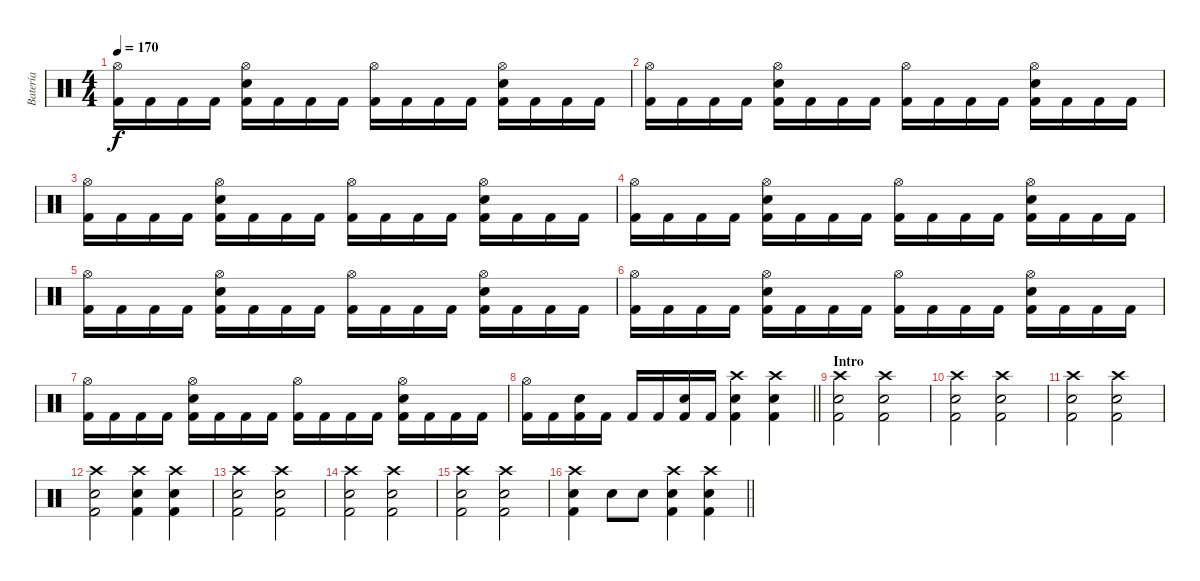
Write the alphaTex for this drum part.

\track ("Batería" "Batería") {instrument percussion}
\staff {score}
\articulation defaults
\ts (4 4)
\tempo 170
\clef neutral
\ks c
("Hi-Hat (open)" "Kick (hit) 2").16{dy f} "Kick (hit) 2".16 "Kick (hit) 2".16 "Kick (hit) 2".16 ("Hi-Hat (open)" "Snare (hit) 2" "Kick (hit) 2").16 "Kick (hit) 2".16 "Kick (hit) 2".16 "Kick (hit) 2".16 ("Hi-Hat (open)" "Kick (hit) 2").16 "Kick (hit) 2".16 "Kick (hit) 2".16 "Kick (hit) 2".16 ("Hi-Hat (open)" "Snare (hit) 2" "Kick (hit) 2").16 "Kick (hit) 2".16 "Kick (hit) 2".16 "Kick (hit) 2".16 |
("Hi-Hat (open)" "Kick (hit) 2").16 "Kick (hit) 2".16 "Kick (hit) 2".16 "Kick (hit) 2".16 ("Hi-Hat (open)" "Snare (hit) 2" "Kick (hit) 2").16 "Kick (hit) 2".16 "Kick (hit) 2".16 "Kick (hit) 2".16 ("Hi-Hat (open)" "Kick (hit) 2").16 "Kick (hit) 2".16 "Kick (hit) 2".16 "Kick (hit) 2".16 ("Hi-Hat (open)" "Snare (hit) 2" "Kick (hit) 2").16 "Kick (hit) 2".16 "Kick (hit) 2".16 "Kick (hit) 2".16 |
("Hi-Hat (open)" "Kick (hit) 2").16 "Kick (hit) 2".16 "Kick (hit) 2".16 "Kick (hit) 2".16 ("Hi-Hat (open)" "Snare (hit) 2" "Kick (hit) 2").16 "Kick (hit) 2".16 "Kick (hit) 2".16 "Kick (hit) 2".16 ("Hi-Hat (open)" "Kick (hit) 2").16 "Kick (hit) 2".16 "Kick (hit) 2".16 "Kick (hit) 2".16 ("Hi-Hat (open)" "Snare (hit) 2" "Kick (hit) 2").16 "Kick (hit) 2".16 "Kick (hit) 2".16 "Kick (hit) 2".16 |
("Hi-Hat (open)" "Kick (hit) 2").16 "Kick (hit) 2".16 "Kick (hit) 2".16 "Kick (hit) 2".16 ("Hi-Hat (open)" "Snare (hit) 2" "Kick (hit) 2").16 "Kick (hit) 2".16 "Kick (hit) 2".16 "Kick (hit) 2".16 ("Hi-Hat (open)" "Kick (hit) 2").16 "Kick (hit) 2".16 "Kick (hit) 2".16 "Kick (hit) 2".16 ("Hi-Hat (open)" "Snare (hit) 2" "Kick (hit) 2").16 "Kick (hit) 2".16 "Kick (hit) 2".16 "Kick (hit) 2".16 |
("Hi-Hat (open)" "Kick (hit) 2").16 "Kick (hit) 2".16 "Kick (hit) 2".16 "Kick (hit) 2".16 ("Hi-Hat (open)" "Snare (hit) 2" "Kick (hit) 2").16 "Kick (hit) 2".16 "Kick (hit) 2".16 "Kick (hit) 2".16 ("Hi-Hat (open)" "Kick (hit) 2").16 "Kick (hit) 2".16 "Kick (hit) 2".16 "Kick (hit) 2".16 ("Hi-Hat (open)" "Snare (hit) 2" "Kick (hit) 2").16 "Kick (hit) 2".16 "Kick (hit) 2".16 "Kick (hit) 2".16 |
("Hi-Hat (open)" "Kick (hit) 2").16 "Kick (hit) 2".16 "Kick (hit) 2".16 "Kick (hit) 2".16 ("Hi-Hat (open)" "Snare (hit) 2" "Kick (hit) 2").16 "Kick (hit) 2".16 "Kick (hit) 2".16 "Kick (hit) 2".16 ("Hi-Hat (open)" "Kick (hit) 2").16 "Kick (hit) 2".16 "Kick (hit) 2".16 "Kick (hit) 2".16 ("Hi-Hat (open)" "Snare (hit) 2" "Kick (hit) 2").16 "Kick (hit) 2".16 "Kick (hit) 2".16 "Kick (hit) 2".16 |
("Hi-Hat (open)" "Kick (hit) 2").16 "Kick (hit) 2".16 "Kick (hit) 2".16 "Kick (hit) 2".16 ("Hi-Hat (open)" "Snare (hit) 2" "Kick (hit) 2").16 "Kick (hit) 2".16 "Kick (hit) 2".16 "Kick (hit) 2".16 ("Hi-Hat (open)" "Kick (hit) 2").16 "Kick (hit) 2".16 "Kick (hit) 2".16 "Kick (hit) 2".16 ("Hi-Hat (open)" "Snare (hit) 2" "Kick (hit) 2").16 "Kick (hit) 2".16 "Kick (hit) 2".16 "Kick (hit) 2".16 |
\barLineRight lightlight
("Hi-Hat (open)" "Kick (hit) 2").16 "Kick (hit) 2".16 ("Snare (hit) 2" "Kick (hit) 2").16 "Kick (hit) 2".16 "Kick (hit) 2".16 "Kick (hit) 2".16 ("Snare (hit) 2" "Kick (hit) 2").16 "Kick (hit) 2".16 ("Crash high (hit)" "Snare (hit) 2" "Kick (hit) 2").4 ("Crash high (hit)" "Snare (hit) 2" "Kick (hit) 2").4 |
\section ("" "Intro")
("Crash high (hit)" "Snare (hit) 2" "Kick (hit) 2").2 ("Crash high (hit)" "Snare (hit) 2" "Kick (hit) 2").2 |
("Crash high (hit)" "Snare (hit) 2" "Kick (hit) 2").2 ("Crash high (hit)" "Snare (hit) 2" "Kick (hit) 2").2 |
("Crash high (hit)" "Snare (hit) 2" "Kick (hit) 2").2 ("Crash high (hit)" "Snare (hit) 2" "Kick (hit) 2").2 |
("Crash high (hit)" "Snare (hit) 2" "Kick (hit) 2").2 ("Crash high (hit)" "Snare (hit) 2" "Kick (hit) 2").4 ("Crash high (hit)" "Snare (hit) 2" "Kick (hit) 2").4 |
("Crash high (hit)" "Snare (hit) 2" "Kick (hit) 2").2 ("Crash high (hit)" "Snare (hit) 2" "Kick (hit) 2").2 |
("Crash high (hit)" "Snare (hit) 2" "Kick (hit) 2").2 ("Crash high (hit)" "Snare (hit) 2" "Kick (hit) 2").2 |
("Crash high (hit)" "Snare (hit) 2" "Kick (hit) 2").2 ("Crash high (hit)" "Snare (hit) 2" "Kick (hit) 2").2 |
\barLineRight lightlight
("Crash high (hit)" "Snare (hit) 2" "Kick (hit) 2").4 "Snare (hit) 2".8 "Snare (hit) 2".8 ("Crash high (hit)" "Snare (hit) 2" "Kick (hit) 2").4 ("Crash high (hit)" "Snare (hit) 2" "Kick (hit) 2").4
